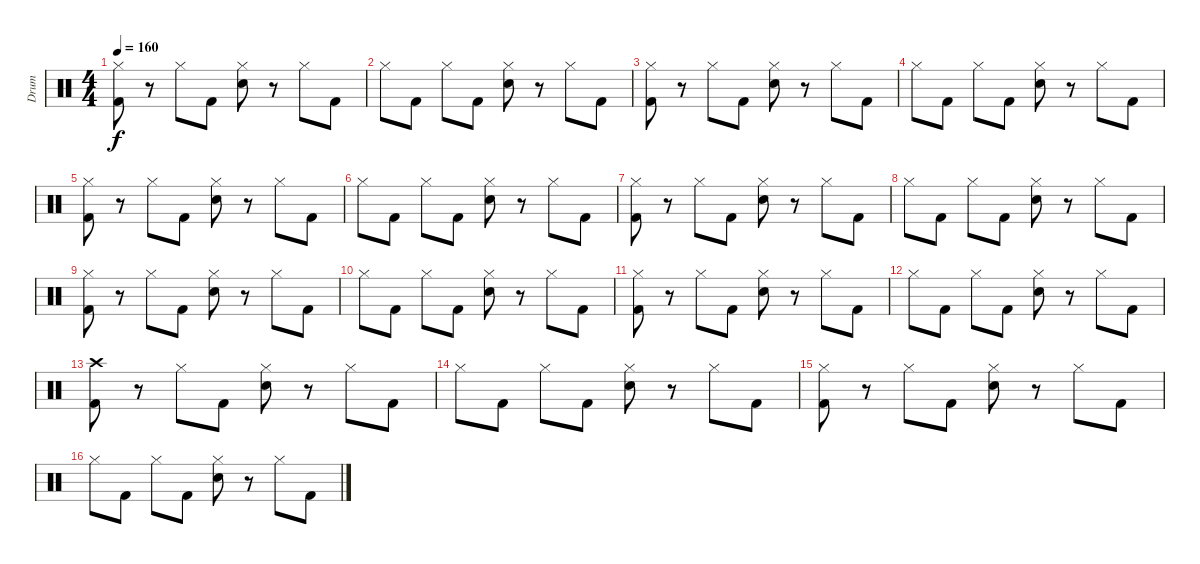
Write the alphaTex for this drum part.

\track ("Drum" "Drum") {instrument percussion}
\staff {score}
\articulation defaults
\ts (4 4)
\tempo 160
\clef neutral
\ks c
("Hi-Hat (closed)" "Kick (hit) 2").8{dy f} r.8 "Hi-Hat (closed)".8 "Kick (hit) 2".8 ("Hi-Hat (closed)" "Electric Snare (hit)").8 r.8 "Hi-Hat (closed)".8 "Kick (hit) 2".8 |
"Hi-Hat (closed)".8 "Kick (hit) 2".8 "Hi-Hat (closed)".8 "Kick (hit) 2".8 ("Hi-Hat (closed)" "Electric Snare (hit)").8 r.8 "Hi-Hat (closed)".8 "Kick (hit) 2".8 |
("Hi-Hat (closed)" "Kick (hit) 2").8 r.8 "Hi-Hat (closed)".8 "Kick (hit) 2".8 ("Hi-Hat (closed)" "Electric Snare (hit)").8 r.8 "Hi-Hat (closed)".8 "Kick (hit) 2".8 |
"Hi-Hat (closed)".8 "Kick (hit) 2".8 "Hi-Hat (closed)".8 "Kick (hit) 2".8 ("Hi-Hat (closed)" "Electric Snare (hit)").8 r.8 "Hi-Hat (closed)".8 "Kick (hit) 2".8 |
("Hi-Hat (closed)" "Kick (hit) 2").8 r.8 "Hi-Hat (closed)".8 "Kick (hit) 2".8 ("Hi-Hat (closed)" "Electric Snare (hit)").8 r.8 "Hi-Hat (closed)".8 "Kick (hit) 2".8 |
"Hi-Hat (closed)".8 "Kick (hit) 2".8 "Hi-Hat (closed)".8 "Kick (hit) 2".8 ("Hi-Hat (closed)" "Electric Snare (hit)").8 r.8 "Hi-Hat (closed)".8 "Kick (hit) 2".8 |
("Hi-Hat (closed)" "Kick (hit) 2").8 r.8 "Hi-Hat (closed)".8 "Kick (hit) 2".8 ("Hi-Hat (closed)" "Electric Snare (hit)").8 r.8 "Hi-Hat (closed)".8 "Kick (hit) 2".8 |
"Hi-Hat (closed)".8 "Kick (hit) 2".8 "Hi-Hat (closed)".8 "Kick (hit) 2".8 ("Hi-Hat (closed)" "Electric Snare (hit)").8 r.8 "Hi-Hat (closed)".8 "Kick (hit) 2".8 |
("Hi-Hat (closed)" "Kick (hit) 2").8 r.8 "Hi-Hat (closed)".8 "Kick (hit) 2".8 ("Hi-Hat (closed)" "Electric Snare (hit)").8 r.8 "Hi-Hat (closed)".8 "Kick (hit) 2".8 |
"Hi-Hat (closed)".8 "Kick (hit) 2".8 "Hi-Hat (closed)".8 "Kick (hit) 2".8 ("Hi-Hat (closed)" "Electric Snare (hit)").8 r.8 "Hi-Hat (closed)".8 "Kick (hit) 2".8 |
("Hi-Hat (closed)" "Kick (hit) 2").8 r.8 "Hi-Hat (closed)".8 "Kick (hit) 2".8 ("Hi-Hat (closed)" "Electric Snare (hit)").8 r.8 "Hi-Hat (closed)".8 "Kick (hit) 2".8 |
"Hi-Hat (closed)".8 "Kick (hit) 2".8 "Hi-Hat (closed)".8 "Kick (hit) 2".8 ("Hi-Hat (closed)" "Electric Snare (hit)").8 r.8 "Hi-Hat (closed)".8 "Kick (hit) 2".8 |
("Crash high (hit)" "Kick (hit) 2").8 r.8 "Hi-Hat (closed)".8 "Kick (hit) 2".8 ("Hi-Hat (closed)" "Electric Snare (hit)").8 r.8 "Hi-Hat (closed)".8 "Kick (hit) 2".8 |
"Hi-Hat (closed)".8 "Kick (hit) 2".8 "Hi-Hat (closed)".8 "Kick (hit) 2".8 ("Hi-Hat (closed)" "Electric Snare (hit)").8 r.8 "Hi-Hat (closed)".8 "Kick (hit) 2".8 |
("Hi-Hat (closed)" "Kick (hit) 2").8 r.8 "Hi-Hat (closed)".8 "Kick (hit) 2".8 ("Hi-Hat (closed)" "Electric Snare (hit)").8 r.8 "Hi-Hat (closed)".8 "Kick (hit) 2".8 |
"Hi-Hat (closed)".8 "Kick (hit) 2".8 "Hi-Hat (closed)".8 "Kick (hit) 2".8 ("Hi-Hat (closed)" "Electric Snare (hit)").8 r.8 "Hi-Hat (closed)".8 "Kick (hit) 2".8
